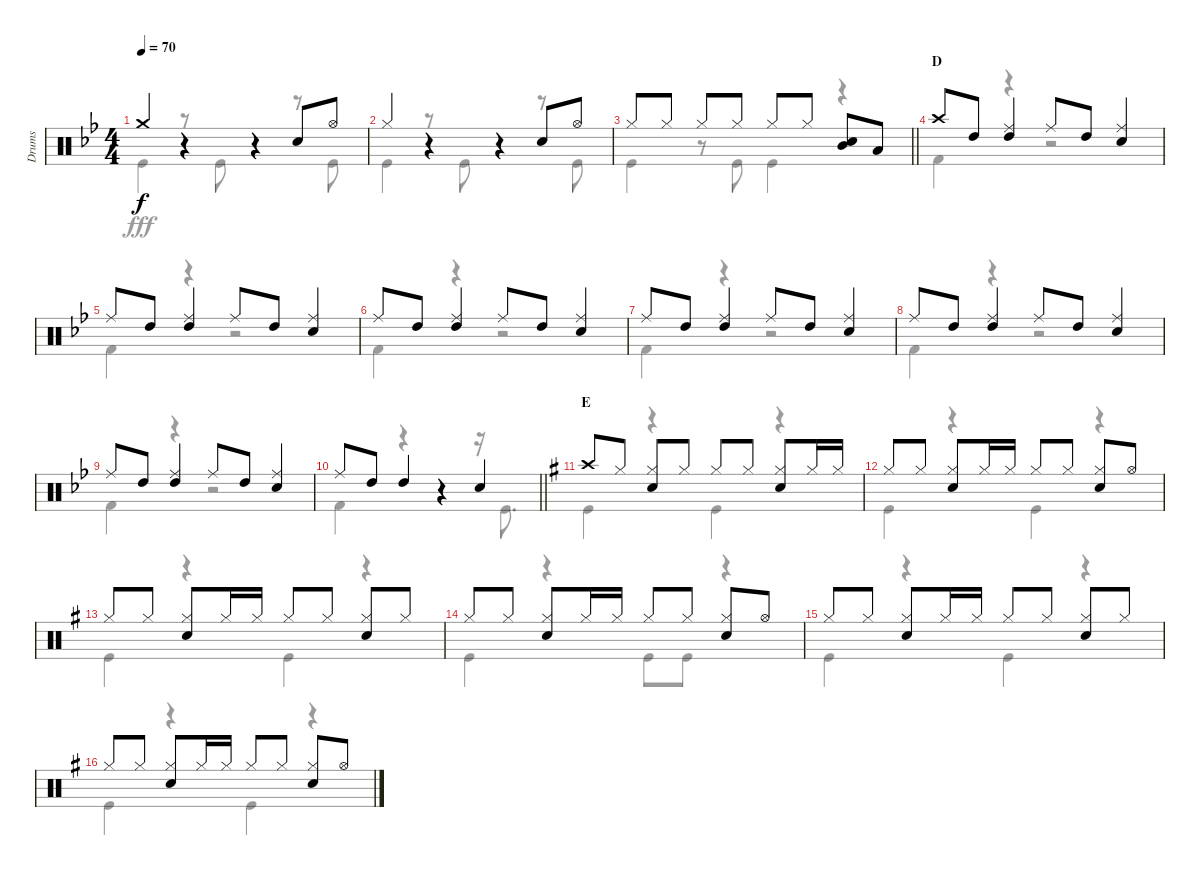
\track ("Drums" "Drums") {instrument percussion}
\staff {score}
\articulation defaults
\voice
\ts (4 4)
\tempo 70
\clef neutral
\ks bb "Crash medium (hit)".4{dy f}
r.4 r.4 "Snare (hit) 2".8 "Hi-Hat (open)".8 |
"Hi-Hat (closed)".4 r.4 r.4 "Snare (hit) 2".8 "Hi-Hat (open)".8 |
\barLineRight lightlight "Hi-Hat (closed)".8 "Hi-Hat (closed)".8 "Hi-Hat (closed)".8 "Hi-Hat (closed)".8 "Hi-Hat (closed)".8 "Hi-Hat (closed)".8
("Mid Tom (hit)" "Snare (hit) 2").8 "Low Tom (hit)".8 |
\section ("" "D")
"Crash high (hit)".8 "High Tom (hit)".8 ("Ride (middle)" "High Tom (hit)").4 "Ride (middle)".8 "High Tom (hit)".8 ("Ride (middle)" "Snare (hit) 2").4 |
"Ride (middle)".8 "High Tom (hit)".8 ("Ride (middle)" "High Tom (hit)").4 "Ride (middle)".8 "High Tom (hit)".8 ("Ride (middle)" "Snare (hit) 2").4 |
"Ride (middle)".8 "High Tom (hit)".8 ("Ride (middle)" "High Tom (hit)").4 "Ride (middle)".8 "High Tom (hit)".8 ("Ride (middle)" "Snare (hit) 2").4 |
"Ride (middle)".8 "High Tom (hit)".8 ("Ride (middle)" "High Tom (hit)").4 "Ride (middle)".8 "High Tom (hit)".8 ("Ride (middle)" "Snare (hit) 2").4 |
"Ride (middle)".8 "High Tom (hit)".8 ("Ride (middle)" "High Tom (hit)").4 "Ride (middle)".8 "High Tom (hit)".8 ("Ride (middle)" "Snare (hit) 2").4 |
"Ride (middle)".8 "High Tom (hit)".8 ("Ride (middle)" "High Tom (hit)").4 "Ride (middle)".8 "High Tom (hit)".8 ("Ride (middle)" "Snare (hit) 2").4 |
\barLineRight lightlight "Ride (middle)".8 "High Tom (hit)".8 "High Tom (hit)".4
r.4 "Snare (hit) 2".4 |
\section ("" "E")
\ks g "Crash high (hit)".8 "Hi-Hat (closed)".8
("Hi-Hat (closed)" "Snare (hit) 2").8 "Hi-Hat (closed)".8 "Hi-Hat (closed)".8 "Hi-Hat (closed)".8 ("Hi-Hat (closed)" "Snare (hit) 2").8 "Hi-Hat (closed)".16 "Hi-Hat (closed)".16 |
"Hi-Hat (closed)".8 "Hi-Hat (closed)".8 ("Hi-Hat (closed)" "Snare (hit) 2").8 "Hi-Hat (closed)".16 "Hi-Hat (closed)".16 "Hi-Hat (closed)".8 "Hi-Hat (closed)".8 ("Hi-Hat (closed)" "Snare (hit) 2").8 "Hi-Hat (open)".8 |
"Hi-Hat (closed)".8 "Hi-Hat (closed)".8 ("Hi-Hat (closed)" "Snare (hit) 2").8 "Hi-Hat (closed)".16 "Hi-Hat (closed)".16 "Hi-Hat (closed)".8 "Hi-Hat (closed)".8 ("Hi-Hat (closed)" "Snare (hit) 2").8 "Hi-Hat (closed)".8 |
"Hi-Hat (closed)".8 "Hi-Hat (closed)".8 ("Hi-Hat (closed)" "Snare (hit) 2").8 "Hi-Hat (closed)".16 "Hi-Hat (closed)".16 "Hi-Hat (closed)".8 "Hi-Hat (closed)".8 ("Hi-Hat (closed)" "Snare (hit) 2").8 "Hi-Hat (open)".8 |
"Hi-Hat (closed)".8 "Hi-Hat (closed)".8 ("Hi-Hat (closed)" "Snare (hit) 2").8 "Hi-Hat (closed)".16 "Hi-Hat (closed)".16 "Hi-Hat (closed)".8 "Hi-Hat (closed)".8 ("Hi-Hat (closed)" "Snare (hit) 2").8 "Hi-Hat (closed)".8 |
"Hi-Hat (closed)".8 "Hi-Hat (closed)".8 ("Hi-Hat (closed)" "Snare (hit) 2").8 "Hi-Hat (closed)".16 "Hi-Hat (closed)".16 "Hi-Hat (closed)".8 "Hi-Hat (closed)".8 ("Hi-Hat (closed)" "Snare (hit) 2").8 "Hi-Hat (open)".8
\voice
\clef neutral
\ottava regular
\simile none
\ks bb "Kick (hit)".4{dy fff}
r.8 "Kick (hit)".8 r.4 r.8 "Kick (hit)".8 |
"Kick (hit)".4 r.8 "Kick (hit)".8 r.4 r.8 "Kick (hit)".8 |
\barLineRight lightlight "Kick (hit)".4
r.8 "Kick (hit)".8 "Kick (hit)".4 r.4 |
"Kick (hit) 2".4 r.4 r.2 |
"Kick (hit) 2".4 r.4 r.2 |
"Kick (hit) 2".4 r.4 r.2 |
"Kick (hit) 2".4 r.4 r.2 |
"Kick (hit) 2".4 r.4 r.2 |
"Kick (hit) 2".4 r.4 r.2 |
\barLineRight lightlight "Kick (hit) 2".4
r.4 r.4 r.16 "Kick (hit)".8{d} |
\ks g "Kick (hit)".4
r.4 "Kick (hit)".4 r.4 |
"Kick (hit)".4 r.4 "Kick (hit)".4 r.4 |
"Kick (hit)".4 r.4 "Kick (hit)".4 r.4 |
"Kick (hit)".4 r.4 "Kick (hit)".8 "Kick (hit)".8 r.4 |
"Kick (hit)".4 r.4 "Kick (hit)".4 r.4 |
"Kick (hit)".4 r.4 "Kick (hit)".4 r.4
